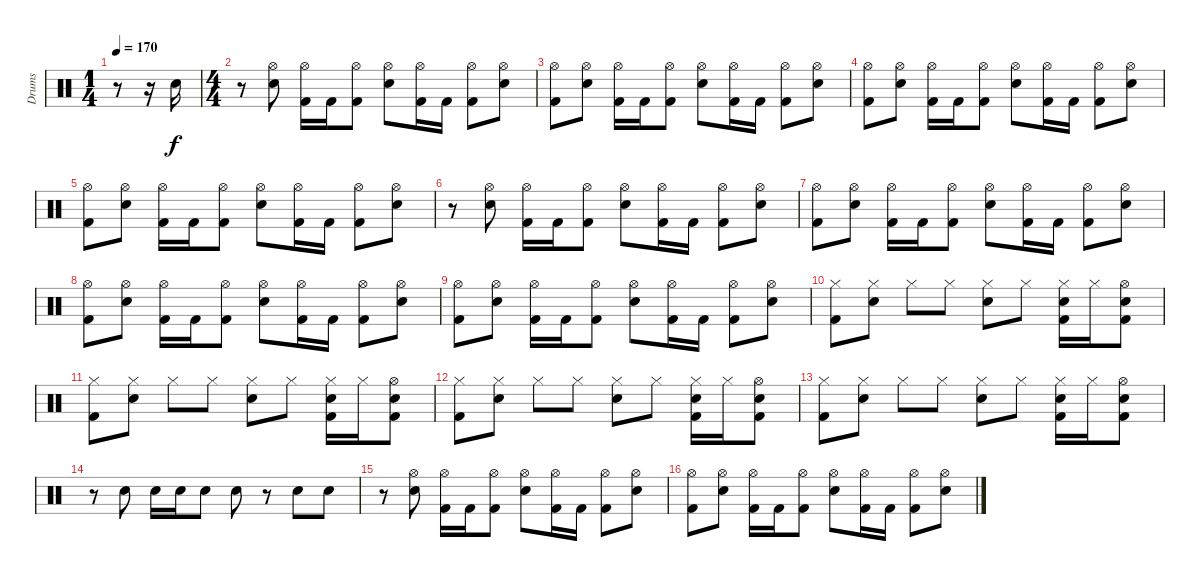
\track ("Drums" "Drums") {instrument percussion}
\staff {score}
\articulation defaults
\ts (1 4)
\tempo 170
\clef neutral
\ks c
r.8{dy f} r.16 "Snare (hit) 2".16 |
\ts (4 4)
r.8 ("Hi-Hat (open)" "Snare (hit) 2").8 ("Hi-Hat (open)" "Kick (hit) 2").16 "Kick (hit) 2".16 ("Hi-Hat (open)" "Kick (hit) 2").8 ("Hi-Hat (open)" "Snare (hit) 2").8 ("Hi-Hat (open)" "Kick (hit) 2").16 "Kick (hit) 2".16 ("Hi-Hat (open)" "Kick (hit) 2").8 ("Hi-Hat (open)" "Snare (hit) 2").8 |
("Hi-Hat (open)" "Kick (hit) 2").8 ("Hi-Hat (open)" "Snare (hit) 2").8 ("Hi-Hat (open)" "Kick (hit) 2").16 "Kick (hit) 2".16 ("Hi-Hat (open)" "Kick (hit) 2").8 ("Hi-Hat (open)" "Snare (hit) 2").8 ("Hi-Hat (open)" "Kick (hit) 2").16 "Kick (hit) 2".16 ("Hi-Hat (open)" "Kick (hit) 2").8 ("Hi-Hat (open)" "Snare (hit) 2").8 |
("Hi-Hat (open)" "Kick (hit) 2").8 ("Hi-Hat (open)" "Snare (hit) 2").8 ("Hi-Hat (open)" "Kick (hit) 2").16 "Kick (hit) 2".16 ("Hi-Hat (open)" "Kick (hit) 2").8 ("Hi-Hat (open)" "Snare (hit) 2").8 ("Hi-Hat (open)" "Kick (hit) 2").16 "Kick (hit) 2".16 ("Hi-Hat (open)" "Kick (hit) 2").8 ("Hi-Hat (open)" "Snare (hit) 2").8 |
("Hi-Hat (open)" "Kick (hit) 2").8 ("Hi-Hat (open)" "Snare (hit) 2").8 ("Hi-Hat (open)" "Kick (hit) 2").16 "Kick (hit) 2".16 ("Hi-Hat (open)" "Kick (hit) 2").8 ("Hi-Hat (open)" "Snare (hit) 2").8 ("Hi-Hat (open)" "Kick (hit) 2").16 "Kick (hit) 2".16 ("Hi-Hat (open)" "Kick (hit) 2").8 ("Hi-Hat (open)" "Snare (hit) 2").8 |
r.8 ("Hi-Hat (open)" "Snare (hit) 2").8 ("Hi-Hat (open)" "Kick (hit) 2").16 "Kick (hit) 2".16 ("Hi-Hat (open)" "Kick (hit) 2").8 ("Hi-Hat (open)" "Snare (hit) 2").8 ("Hi-Hat (open)" "Kick (hit) 2").16 "Kick (hit) 2".16 ("Hi-Hat (open)" "Kick (hit) 2").8 ("Hi-Hat (open)" "Snare (hit) 2").8 |
("Hi-Hat (open)" "Kick (hit) 2").8 ("Hi-Hat (open)" "Snare (hit) 2").8 ("Hi-Hat (open)" "Kick (hit) 2").16 "Kick (hit) 2".16 ("Hi-Hat (open)" "Kick (hit) 2").8 ("Hi-Hat (open)" "Snare (hit) 2").8 ("Hi-Hat (open)" "Kick (hit) 2").16 "Kick (hit) 2".16 ("Hi-Hat (open)" "Kick (hit) 2").8 ("Hi-Hat (open)" "Snare (hit) 2").8 |
("Hi-Hat (open)" "Kick (hit) 2").8 ("Hi-Hat (open)" "Snare (hit) 2").8 ("Hi-Hat (open)" "Kick (hit) 2").16 "Kick (hit) 2".16 ("Hi-Hat (open)" "Kick (hit) 2").8 ("Hi-Hat (open)" "Snare (hit) 2").8 ("Hi-Hat (open)" "Kick (hit) 2").16 "Kick (hit) 2".16 ("Hi-Hat (open)" "Kick (hit) 2").8 ("Hi-Hat (open)" "Snare (hit) 2").8 |
("Hi-Hat (open)" "Kick (hit) 2").8 ("Hi-Hat (open)" "Snare (hit) 2").8 ("Hi-Hat (open)" "Kick (hit) 2").16 "Kick (hit) 2".16 ("Hi-Hat (open)" "Kick (hit) 2").8 ("Hi-Hat (open)" "Snare (hit) 2").8 ("Hi-Hat (open)" "Kick (hit) 2").16 "Kick (hit) 2".16 ("Hi-Hat (open)" "Kick (hit) 2").8 ("Hi-Hat (open)" "Snare (hit) 2").8 |
("Hi-Hat (closed)" "Kick (hit) 2").8 ("Hi-Hat (closed)" "Snare (hit) 2").8 "Hi-Hat (closed)".8 "Hi-Hat (closed)".8 ("Hi-Hat (closed)" "Snare (hit) 2").8 "Hi-Hat (closed)".8 ("Hi-Hat (closed)" "Snare (hit) 2" "Kick (hit) 2").16 "Hi-Hat (closed)".16 ("Hi-Hat (open)" "Snare (hit) 2" "Kick (hit) 2").8 |
("Hi-Hat (closed)" "Kick (hit) 2").8 ("Hi-Hat (closed)" "Snare (hit) 2").8 "Hi-Hat (closed)".8 "Hi-Hat (closed)".8 ("Hi-Hat (closed)" "Snare (hit) 2").8 "Hi-Hat (closed)".8 ("Hi-Hat (closed)" "Snare (hit) 2" "Kick (hit) 2").16 "Hi-Hat (closed)".16 ("Hi-Hat (open)" "Snare (hit) 2" "Kick (hit) 2").8 |
("Hi-Hat (closed)" "Kick (hit) 2").8 ("Hi-Hat (closed)" "Snare (hit) 2").8 "Hi-Hat (closed)".8 "Hi-Hat (closed)".8 ("Hi-Hat (closed)" "Snare (hit) 2").8 "Hi-Hat (closed)".8 ("Hi-Hat (closed)" "Snare (hit) 2" "Kick (hit) 2").16 "Hi-Hat (closed)".16 ("Hi-Hat (open)" "Snare (hit) 2" "Kick (hit) 2").8 |
("Hi-Hat (closed)" "Kick (hit) 2").8 ("Hi-Hat (closed)" "Snare (hit) 2").8 "Hi-Hat (closed)".8 "Hi-Hat (closed)".8 ("Hi-Hat (closed)" "Snare (hit) 2").8 "Hi-Hat (closed)".8 ("Hi-Hat (closed)" "Snare (hit) 2" "Kick (hit) 2").16 "Hi-Hat (closed)".16 ("Hi-Hat (open)" "Snare (hit) 2" "Kick (hit) 2").8 |
r.8 "Snare (hit) 2".8 "Snare (hit) 2".16 "Snare (hit) 2".16 "Snare (hit) 2".8 "Snare (hit) 2".8 r.8 "Snare (hit) 2".8 "Snare (hit) 2".8 |
r.8 ("Hi-Hat (open)" "Snare (hit) 2").8 ("Hi-Hat (open)" "Kick (hit) 2").16 "Kick (hit) 2".16 ("Hi-Hat (open)" "Kick (hit) 2").8 ("Hi-Hat (open)" "Snare (hit) 2").8 ("Hi-Hat (open)" "Kick (hit) 2").16 "Kick (hit) 2".16 ("Hi-Hat (open)" "Kick (hit) 2").8 ("Hi-Hat (open)" "Snare (hit) 2").8 |
("Hi-Hat (open)" "Kick (hit) 2").8 ("Hi-Hat (open)" "Snare (hit) 2").8 ("Hi-Hat (open)" "Kick (hit) 2").16 "Kick (hit) 2".16 ("Hi-Hat (open)" "Kick (hit) 2").8 ("Hi-Hat (open)" "Snare (hit) 2").8 ("Hi-Hat (open)" "Kick (hit) 2").16 "Kick (hit) 2".16 ("Hi-Hat (open)" "Kick (hit) 2").8 ("Hi-Hat (open)" "Snare (hit) 2").8
